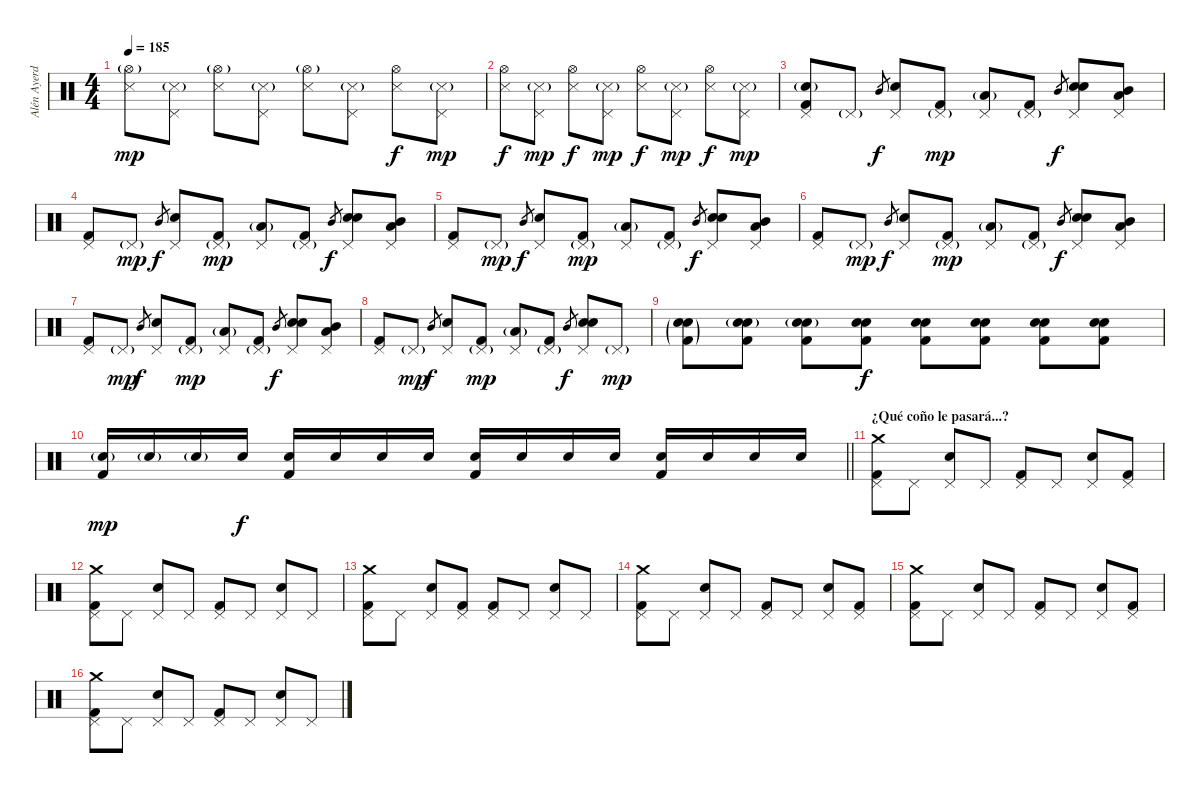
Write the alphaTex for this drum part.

\track ("Alén Ayerdi - Batería" "Alén Ayerd") {instrument percussion}
\staff {score}
\articulation defaults
\ts (4 4)
\tempo 185
\clef neutral
\ks c
("Hi-Hat (open)"{g} "Snare (side stick) 3").8{dy mp} ("Pedal Hi-Hat (hit)" "Metronome (hit)"{g}).8 ("Hi-Hat (open)"{g} "Snare (side stick) 3").8 ("Pedal Hi-Hat (hit)" "Metronome (hit)"{g}).8 ("Hi-Hat (open)"{g} "Snare (side stick) 3").8 ("Pedal Hi-Hat (hit)" "Metronome (hit)"{g}).8 ("Hi-Hat (open)" "Snare (side stick) 3").8{dy f} ("Pedal Hi-Hat (hit)" "Metronome (hit)"{g}).8{dy mp} |
("Hi-Hat (open)" "Snare (side stick) 3").8{dy f} ("Pedal Hi-Hat (hit)" "Metronome (hit)"{g}).8{dy mp} ("Hi-Hat (open)" "Snare (side stick) 3").8{dy f} ("Pedal Hi-Hat (hit)" "Metronome (hit)"{g}).8{dy mp} ("Hi-Hat (open)" "Snare (side stick) 3").8{dy f} ("Pedal Hi-Hat (hit)" "Metronome (hit)"{g}).8{dy mp} ("Hi-Hat (open)" "Snare (side stick) 3").8{dy f} ("Pedal Hi-Hat (hit)" "Metronome (hit)"{g}).8{dy mp} |
("Pedal Hi-Hat (hit)" "Snare (hit) 2"{g} "Kick (hit) 2").8 "Pedal Hi-Hat (hit)"{g}.8 "Mid Tom (hit)".8{gr dy f} ("Pedal Hi-Hat (hit)" "Snare (hit) 2").8 ("Pedal Hi-Hat (hit)"{g} "Kick (hit) 2").8{dy mp} ("Pedal Hi-Hat (hit)" "Low Floor Tom (hit)"{g}).8 ("Pedal Hi-Hat (hit)"{g} "Kick (hit) 2").8 "Mid Tom (hit)".8{gr dy f} ("Pedal Hi-Hat (hit)" "Snare (hit) 2" "Electric Snare (hit)").8 ("Pedal Hi-Hat (hit)" "Low Tom (hit)" "Mid Tom (hit)").8 |
("Pedal Hi-Hat (hit)" "Kick (hit) 2").8 "Pedal Hi-Hat (hit)"{g}.8{dy mp} "Mid Tom (hit)".8{gr dy f} ("Pedal Hi-Hat (hit)" "Snare (hit) 2").8 ("Pedal Hi-Hat (hit)"{g} "Kick (hit) 2").8{dy mp} ("Pedal Hi-Hat (hit)" "Low Floor Tom (hit)"{g}).8 ("Pedal Hi-Hat (hit)"{g} "Kick (hit) 2").8 "Mid Tom (hit)".8{gr dy f} ("Pedal Hi-Hat (hit)" "Snare (hit) 2" "Electric Snare (hit)").8 ("Pedal Hi-Hat (hit)" "Low Tom (hit)" "Mid Tom (hit)").8 |
("Pedal Hi-Hat (hit)" "Kick (hit) 2").8 "Pedal Hi-Hat (hit)"{g}.8{dy mp} "Mid Tom (hit)".8{gr dy f} ("Pedal Hi-Hat (hit)" "Snare (hit) 2").8 ("Pedal Hi-Hat (hit)"{g} "Kick (hit) 2").8{dy mp} ("Pedal Hi-Hat (hit)" "Low Floor Tom (hit)"{g}).8 ("Pedal Hi-Hat (hit)"{g} "Kick (hit) 2").8 "Mid Tom (hit)".8{gr dy f} ("Pedal Hi-Hat (hit)" "Snare (hit) 2" "Electric Snare (hit)").8 ("Pedal Hi-Hat (hit)" "Low Tom (hit)" "Mid Tom (hit)").8 |
("Pedal Hi-Hat (hit)" "Kick (hit) 2").8 "Pedal Hi-Hat (hit)"{g}.8{dy mp} "Mid Tom (hit)".8{gr dy f} ("Pedal Hi-Hat (hit)" "Snare (hit) 2").8 ("Pedal Hi-Hat (hit)"{g} "Kick (hit) 2").8{dy mp} ("Pedal Hi-Hat (hit)" "Low Floor Tom (hit)"{g}).8 ("Pedal Hi-Hat (hit)"{g} "Kick (hit) 2").8 "Mid Tom (hit)".8{gr dy f} ("Pedal Hi-Hat (hit)" "Snare (hit) 2" "Electric Snare (hit)").8 ("Pedal Hi-Hat (hit)" "Low Tom (hit)" "Mid Tom (hit)").8 |
("Pedal Hi-Hat (hit)" "Kick (hit) 2").8 "Pedal Hi-Hat (hit)"{g}.8{dy mp} "Mid Tom (hit)".8{gr dy f} ("Pedal Hi-Hat (hit)" "Snare (hit) 2").8 ("Pedal Hi-Hat (hit)"{g} "Kick (hit) 2").8{dy mp} ("Pedal Hi-Hat (hit)" "Low Floor Tom (hit)"{g}).8 ("Pedal Hi-Hat (hit)"{g} "Kick (hit) 2").8 "Mid Tom (hit)".8{gr dy f} ("Pedal Hi-Hat (hit)" "Snare (hit) 2" "Electric Snare (hit)").8 ("Pedal Hi-Hat (hit)" "Low Tom (hit)" "Mid Tom (hit)").8 |
("Pedal Hi-Hat (hit)" "Kick (hit) 2").8 "Pedal Hi-Hat (hit)"{g}.8{dy mp} "Mid Tom (hit)".8{gr dy f} ("Pedal Hi-Hat (hit)" "Snare (hit) 2").8 ("Pedal Hi-Hat (hit)"{g} "Kick (hit) 2").8{dy mp} ("Pedal Hi-Hat (hit)" "Low Floor Tom (hit)"{g}).8 ("Pedal Hi-Hat (hit)"{g} "Kick (hit) 2").8 "Mid Tom (hit)".8{gr dy f} ("Pedal Hi-Hat (hit)" "Snare (hit) 2" "Electric Snare (hit)").8 "Pedal Hi-Hat (hit)"{g}.8{dy mp} |
("Snare (hit) 2"{g} "Electric Snare (hit)"{g} "Kick (hit) 2"{g}).8 ("Snare (hit) 2"{g} "Electric Snare (hit)"{g} "Kick (hit) 2").8 ("Snare (hit) 2"{g} "Electric Snare (hit)" "Kick (hit) 2").8 ("Snare (hit) 2" "Electric Snare (hit)" "Kick (hit) 2").8{dy f} ("Snare (hit) 2" "Electric Snare (hit)" "Kick (hit) 2").8 ("Snare (hit) 2" "Electric Snare (hit)" "Kick (hit) 2").8 ("Snare (hit) 2" "Electric Snare (hit)" "Kick (hit) 2").8 ("Snare (hit) 2" "Electric Snare (hit)" "Kick (hit) 2").8 |
\barLineRight lightlight
("Electric Snare (hit)"{g} "Kick (hit) 2").16{dy mp} "Electric Snare (hit)"{g}.16 "Electric Snare (hit)"{g}.16 "Electric Snare (hit)".16{dy f} ("Electric Snare (hit)" "Kick (hit) 2").16 "Electric Snare (hit)".16 "Electric Snare (hit)".16 "Electric Snare (hit)".16 ("Electric Snare (hit)" "Kick (hit) 2").16 "Electric Snare (hit)".16 "Electric Snare (hit)".16 "Electric Snare (hit)".16 ("Electric Snare (hit)" "Kick (hit) 2").16 "Electric Snare (hit)".16 "Electric Snare (hit)".16 "Electric Snare (hit)".16 |
\section ("" "¿Qué coño le pasará...?")
("Crash medium (hit)" "Pedal Hi-Hat (hit)" "Kick (hit) 2").8 "Pedal Hi-Hat (hit)".8 ("Pedal Hi-Hat (hit)" "Electric Snare (hit)").8 "Pedal Hi-Hat (hit)".8 ("Pedal Hi-Hat (hit)" "Kick (hit) 2").8 "Pedal Hi-Hat (hit)".8 ("Pedal Hi-Hat (hit)" "Electric Snare (hit)").8 ("Pedal Hi-Hat (hit)" "Kick (hit) 2").8 |
("Crash medium (hit)" "Pedal Hi-Hat (hit)" "Kick (hit) 2").8 "Pedal Hi-Hat (hit)".8 ("Pedal Hi-Hat (hit)" "Electric Snare (hit)").8 "Pedal Hi-Hat (hit)".8 ("Pedal Hi-Hat (hit)" "Kick (hit) 2").8 "Pedal Hi-Hat (hit)".8 ("Pedal Hi-Hat (hit)" "Electric Snare (hit)").8 "Pedal Hi-Hat (hit)".8 |
("Crash medium (hit)" "Pedal Hi-Hat (hit)" "Kick (hit) 2").8 "Pedal Hi-Hat (hit)".8 ("Pedal Hi-Hat (hit)" "Electric Snare (hit)").8 ("Pedal Hi-Hat (hit)" "Kick (hit) 2").8 ("Pedal Hi-Hat (hit)" "Kick (hit) 2").8 "Pedal Hi-Hat (hit)".8 ("Pedal Hi-Hat (hit)" "Electric Snare (hit)").8 "Pedal Hi-Hat (hit)".8 |
("Crash medium (hit)" "Pedal Hi-Hat (hit)" "Kick (hit) 2").8 "Pedal Hi-Hat (hit)".8 ("Pedal Hi-Hat (hit)" "Electric Snare (hit)").8 "Pedal Hi-Hat (hit)".8 ("Pedal Hi-Hat (hit)" "Kick (hit) 2").8 "Pedal Hi-Hat (hit)".8 ("Pedal Hi-Hat (hit)" "Electric Snare (hit)").8 ("Pedal Hi-Hat (hit)" "Kick (hit) 2").8 |
("Crash medium (hit)" "Pedal Hi-Hat (hit)" "Kick (hit) 2").8 "Pedal Hi-Hat (hit)".8 ("Pedal Hi-Hat (hit)" "Electric Snare (hit)").8 "Pedal Hi-Hat (hit)".8 ("Pedal Hi-Hat (hit)" "Kick (hit) 2").8 "Pedal Hi-Hat (hit)".8 ("Pedal Hi-Hat (hit)" "Electric Snare (hit)").8 ("Pedal Hi-Hat (hit)" "Kick (hit) 2").8 |
("Crash medium (hit)" "Pedal Hi-Hat (hit)" "Kick (hit) 2").8 "Pedal Hi-Hat (hit)".8 ("Pedal Hi-Hat (hit)" "Electric Snare (hit)").8 "Pedal Hi-Hat (hit)".8 ("Pedal Hi-Hat (hit)" "Kick (hit) 2").8 "Pedal Hi-Hat (hit)".8 ("Pedal Hi-Hat (hit)" "Electric Snare (hit)").8 "Pedal Hi-Hat (hit)".8
